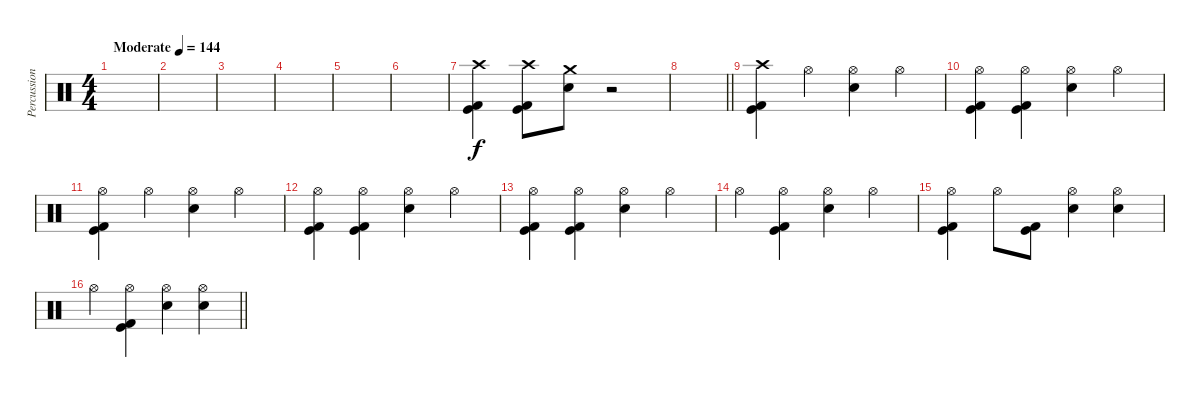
\track ("Percussion" "Percussion") {instrument percussion}
\staff {score}
\articulation defaults
\ts (4 4)
\tempo (144 "Moderate")
\clef neutral
\ks c
|
|
|
|
|
|
("Crash high (hit)" "Kick (hit)" "Kick (hit) 2").4 ("Crash high (hit)" "Kick (hit)" "Kick (hit) 2").8 ("Crash medium (hit)" "Electric Snare (hit)").8 r.2 |
\barLineRight lightlight
|
\section ("" "")
("Crash high (hit)" "Kick (hit)" "Kick (hit) 2").4 "Hi-Hat (open)".4 ("Hi-Hat (open)" "Electric Snare (hit)").4 "Hi-Hat (open)".4 |
("Hi-Hat (open)" "Kick (hit)" "Kick (hit) 2").4 ("Hi-Hat (open)" "Kick (hit)" "Kick (hit) 2").4 ("Hi-Hat (open)" "Electric Snare (hit)").4 "Hi-Hat (open)".4 |
("Hi-Hat (open)" "Kick (hit)" "Kick (hit) 2").4 "Hi-Hat (open)".4 ("Hi-Hat (open)" "Electric Snare (hit)").4 "Hi-Hat (open)".4 |
("Hi-Hat (open)" "Kick (hit)" "Kick (hit) 2").4 ("Hi-Hat (open)" "Kick (hit)" "Kick (hit) 2").4 ("Hi-Hat (open)" "Electric Snare (hit)").4 "Hi-Hat (open)".4 |
("Hi-Hat (open)" "Kick (hit)" "Kick (hit) 2").4 ("Hi-Hat (open)" "Kick (hit)" "Kick (hit) 2").4 ("Hi-Hat (open)" "Electric Snare (hit)").4 "Hi-Hat (open)".4 |
"Hi-Hat (open)".4 ("Hi-Hat (open)" "Kick (hit)" "Kick (hit) 2").4 ("Hi-Hat (open)" "Electric Snare (hit)").4 "Hi-Hat (open)".4 |
("Hi-Hat (open)" "Kick (hit)" "Kick (hit) 2").4 "Hi-Hat (open)".8 ("Kick (hit)" "Kick (hit) 2").8 ("Hi-Hat (open)" "Electric Snare (hit)").4 ("Hi-Hat (open)" "Electric Snare (hit)").4 |
\barLineRight lightlight "Hi-Hat (open)".4
("Hi-Hat (open)" "Kick (hit)" "Kick (hit) 2").4 ("Hi-Hat (open)" "Electric Snare (hit)").4 ("Hi-Hat (open)" "Electric Snare (hit)").4
